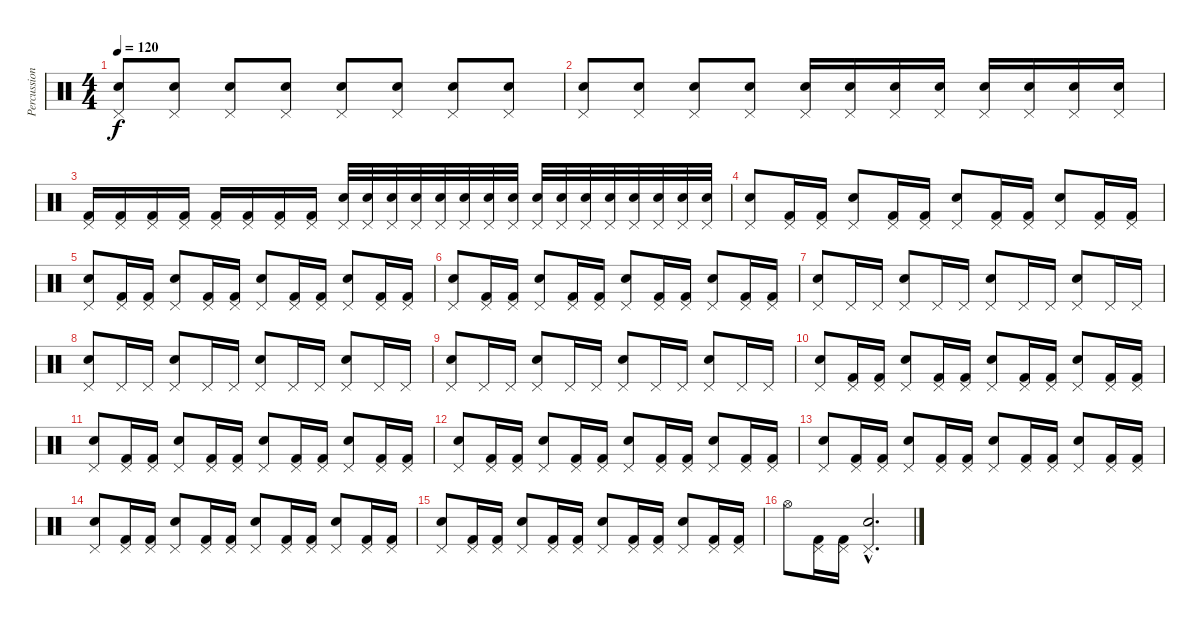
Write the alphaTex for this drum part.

\track ("Percussions" "Percussion") {instrument percussion}
\staff {score}
\articulation defaults
\ts (4 4)
\tempo 120
\clef neutral
\ks c
("Pedal Hi-Hat (hit)" "Snare (hit) 2").8{dy f} ("Pedal Hi-Hat (hit)" "Snare (hit) 2").8 ("Pedal Hi-Hat (hit)" "Snare (hit) 2").8 ("Pedal Hi-Hat (hit)" "Snare (hit) 2").8 ("Pedal Hi-Hat (hit)" "Snare (hit) 2").8 ("Pedal Hi-Hat (hit)" "Snare (hit) 2").8 ("Pedal Hi-Hat (hit)" "Snare (hit) 2").8 ("Pedal Hi-Hat (hit)" "Snare (hit) 2").8 |
("Pedal Hi-Hat (hit)" "Snare (hit) 2").8 ("Pedal Hi-Hat (hit)" "Snare (hit) 2").8 ("Pedal Hi-Hat (hit)" "Snare (hit) 2").8 ("Pedal Hi-Hat (hit)" "Snare (hit) 2").8 ("Pedal Hi-Hat (hit)" "Snare (hit) 2").16 ("Pedal Hi-Hat (hit)" "Snare (hit) 2").16 ("Pedal Hi-Hat (hit)" "Snare (hit) 2").16 ("Pedal Hi-Hat (hit)" "Snare (hit) 2").16 ("Pedal Hi-Hat (hit)" "Snare (hit) 2").16 ("Pedal Hi-Hat (hit)" "Snare (hit) 2").16 ("Pedal Hi-Hat (hit)" "Snare (hit) 2").16 ("Pedal Hi-Hat (hit)" "Snare (hit) 2").16 |
("Pedal Hi-Hat (hit)" "Kick (hit) 2").16 ("Pedal Hi-Hat (hit)" "Kick (hit) 2").16 ("Pedal Hi-Hat (hit)" "Kick (hit) 2").16 ("Pedal Hi-Hat (hit)" "Kick (hit) 2").16 ("Pedal Hi-Hat (hit)" "Kick (hit) 2").16 ("Pedal Hi-Hat (hit)" "Kick (hit) 2").16 ("Pedal Hi-Hat (hit)" "Kick (hit) 2").16 ("Pedal Hi-Hat (hit)" "Kick (hit) 2").16 ("Pedal Hi-Hat (hit)" "Snare (hit) 2").32 ("Pedal Hi-Hat (hit)" "Snare (hit) 2").32 ("Pedal Hi-Hat (hit)" "Snare (hit) 2").32 ("Pedal Hi-Hat (hit)" "Snare (hit) 2").32 ("Pedal Hi-Hat (hit)" "Snare (hit) 2").32 ("Pedal Hi-Hat (hit)" "Snare (hit) 2").32 ("Pedal Hi-Hat (hit)" "Snare (hit) 2").32 ("Pedal Hi-Hat (hit)" "Snare (hit) 2").32 ("Pedal Hi-Hat (hit)" "Snare (hit) 2").32 ("Pedal Hi-Hat (hit)" "Snare (hit) 2").32 ("Pedal Hi-Hat (hit)" "Snare (hit) 2").32 ("Pedal Hi-Hat (hit)" "Snare (hit) 2").32 ("Pedal Hi-Hat (hit)" "Snare (hit) 2").32 ("Pedal Hi-Hat (hit)" "Snare (hit) 2").32 ("Pedal Hi-Hat (hit)" "Snare (hit) 2").32 ("Pedal Hi-Hat (hit)" "Snare (hit) 2").32 |
("Pedal Hi-Hat (hit)" "Snare (hit) 2").8 ("Pedal Hi-Hat (hit)" "Kick (hit) 2").16 ("Pedal Hi-Hat (hit)" "Kick (hit) 2").16 ("Pedal Hi-Hat (hit)" "Snare (hit) 2").8 ("Pedal Hi-Hat (hit)" "Kick (hit) 2").16 ("Pedal Hi-Hat (hit)" "Kick (hit) 2").16 ("Pedal Hi-Hat (hit)" "Snare (hit) 2").8 ("Pedal Hi-Hat (hit)" "Kick (hit) 2").16 ("Pedal Hi-Hat (hit)" "Kick (hit) 2").16 ("Pedal Hi-Hat (hit)" "Snare (hit) 2").8 ("Pedal Hi-Hat (hit)" "Kick (hit) 2").16 ("Pedal Hi-Hat (hit)" "Kick (hit) 2").16 |
("Pedal Hi-Hat (hit)" "Snare (hit) 2").8 ("Pedal Hi-Hat (hit)" "Kick (hit) 2").16 ("Pedal Hi-Hat (hit)" "Kick (hit) 2").16 ("Pedal Hi-Hat (hit)" "Snare (hit) 2").8 ("Pedal Hi-Hat (hit)" "Kick (hit) 2").16 ("Pedal Hi-Hat (hit)" "Kick (hit) 2").16 ("Pedal Hi-Hat (hit)" "Snare (hit) 2").8 ("Pedal Hi-Hat (hit)" "Kick (hit) 2").16 ("Pedal Hi-Hat (hit)" "Kick (hit) 2").16 ("Pedal Hi-Hat (hit)" "Snare (hit) 2").8 ("Pedal Hi-Hat (hit)" "Kick (hit) 2").16 ("Pedal Hi-Hat (hit)" "Kick (hit) 2").16 |
("Pedal Hi-Hat (hit)" "Snare (hit) 2").8 ("Pedal Hi-Hat (hit)" "Kick (hit) 2").16 ("Pedal Hi-Hat (hit)" "Kick (hit) 2").16 ("Pedal Hi-Hat (hit)" "Snare (hit) 2").8 ("Pedal Hi-Hat (hit)" "Kick (hit) 2").16 ("Pedal Hi-Hat (hit)" "Kick (hit) 2").16 ("Pedal Hi-Hat (hit)" "Snare (hit) 2").8 ("Pedal Hi-Hat (hit)" "Kick (hit) 2").16 ("Pedal Hi-Hat (hit)" "Kick (hit) 2").16 ("Pedal Hi-Hat (hit)" "Snare (hit) 2").8 ("Pedal Hi-Hat (hit)" "Kick (hit) 2").16 ("Pedal Hi-Hat (hit)" "Kick (hit) 2").16 |
("Pedal Hi-Hat (hit)" "Snare (hit) 2").8 "Pedal Hi-Hat (hit)".16 "Pedal Hi-Hat (hit)".16 ("Pedal Hi-Hat (hit)" "Snare (hit) 2").8 "Pedal Hi-Hat (hit)".16 "Pedal Hi-Hat (hit)".16 ("Pedal Hi-Hat (hit)" "Snare (hit) 2").8 "Pedal Hi-Hat (hit)".16 "Pedal Hi-Hat (hit)".16 ("Pedal Hi-Hat (hit)" "Snare (hit) 2").8 "Pedal Hi-Hat (hit)".16 "Pedal Hi-Hat (hit)".16 |
("Pedal Hi-Hat (hit)" "Snare (hit) 2").8 "Pedal Hi-Hat (hit)".16 "Pedal Hi-Hat (hit)".16 ("Pedal Hi-Hat (hit)" "Snare (hit) 2").8 "Pedal Hi-Hat (hit)".16 "Pedal Hi-Hat (hit)".16 ("Pedal Hi-Hat (hit)" "Snare (hit) 2").8 "Pedal Hi-Hat (hit)".16 "Pedal Hi-Hat (hit)".16 ("Pedal Hi-Hat (hit)" "Snare (hit) 2").8 "Pedal Hi-Hat (hit)".16 "Pedal Hi-Hat (hit)".16 |
("Pedal Hi-Hat (hit)" "Snare (hit) 2").8 "Pedal Hi-Hat (hit)".16 "Pedal Hi-Hat (hit)".16 ("Pedal Hi-Hat (hit)" "Snare (hit) 2").8 "Pedal Hi-Hat (hit)".16 "Pedal Hi-Hat (hit)".16 ("Pedal Hi-Hat (hit)" "Snare (hit) 2").8 "Pedal Hi-Hat (hit)".16 "Pedal Hi-Hat (hit)".16 ("Pedal Hi-Hat (hit)" "Snare (hit) 2").8 "Pedal Hi-Hat (hit)".16 "Pedal Hi-Hat (hit)".16 |
("Pedal Hi-Hat (hit)" "Snare (hit) 2").8 ("Pedal Hi-Hat (hit)" "Kick (hit) 2").16 ("Pedal Hi-Hat (hit)" "Kick (hit) 2").16 ("Pedal Hi-Hat (hit)" "Snare (hit) 2").8 ("Pedal Hi-Hat (hit)" "Kick (hit) 2").16 ("Pedal Hi-Hat (hit)" "Kick (hit) 2").16 ("Pedal Hi-Hat (hit)" "Snare (hit) 2").8 ("Pedal Hi-Hat (hit)" "Kick (hit) 2").16 ("Pedal Hi-Hat (hit)" "Kick (hit) 2").16 ("Pedal Hi-Hat (hit)" "Snare (hit) 2").8 ("Pedal Hi-Hat (hit)" "Kick (hit) 2").16 ("Pedal Hi-Hat (hit)" "Kick (hit) 2").16 |
("Pedal Hi-Hat (hit)" "Snare (hit) 2").8 ("Pedal Hi-Hat (hit)" "Kick (hit) 2").16 ("Pedal Hi-Hat (hit)" "Kick (hit) 2").16 ("Pedal Hi-Hat (hit)" "Snare (hit) 2").8 ("Pedal Hi-Hat (hit)" "Kick (hit) 2").16 ("Pedal Hi-Hat (hit)" "Kick (hit) 2").16 ("Pedal Hi-Hat (hit)" "Snare (hit) 2").8 ("Pedal Hi-Hat (hit)" "Kick (hit) 2").16 ("Pedal Hi-Hat (hit)" "Kick (hit) 2").16 ("Pedal Hi-Hat (hit)" "Snare (hit) 2").8 ("Pedal Hi-Hat (hit)" "Kick (hit) 2").16 ("Pedal Hi-Hat (hit)" "Kick (hit) 2").16 |
("Pedal Hi-Hat (hit)" "Snare (hit) 2").8 ("Pedal Hi-Hat (hit)" "Kick (hit) 2").16 ("Pedal Hi-Hat (hit)" "Kick (hit) 2").16 ("Pedal Hi-Hat (hit)" "Snare (hit) 2").8 ("Pedal Hi-Hat (hit)" "Kick (hit) 2").16 ("Pedal Hi-Hat (hit)" "Kick (hit) 2").16 ("Pedal Hi-Hat (hit)" "Snare (hit) 2").8 ("Pedal Hi-Hat (hit)" "Kick (hit) 2").16 ("Pedal Hi-Hat (hit)" "Kick (hit) 2").16 ("Pedal Hi-Hat (hit)" "Snare (hit) 2").8 ("Pedal Hi-Hat (hit)" "Kick (hit) 2").16 ("Pedal Hi-Hat (hit)" "Kick (hit) 2").16 |
("Pedal Hi-Hat (hit)" "Snare (hit) 2").8 ("Pedal Hi-Hat (hit)" "Kick (hit) 2").16 ("Pedal Hi-Hat (hit)" "Kick (hit) 2").16 ("Pedal Hi-Hat (hit)" "Snare (hit) 2").8 ("Pedal Hi-Hat (hit)" "Kick (hit) 2").16 ("Pedal Hi-Hat (hit)" "Kick (hit) 2").16 ("Pedal Hi-Hat (hit)" "Snare (hit) 2").8 ("Pedal Hi-Hat (hit)" "Kick (hit) 2").16 ("Pedal Hi-Hat (hit)" "Kick (hit) 2").16 ("Pedal Hi-Hat (hit)" "Snare (hit) 2").8 ("Pedal Hi-Hat (hit)" "Kick (hit) 2").16 ("Pedal Hi-Hat (hit)" "Kick (hit) 2").16 |
("Pedal Hi-Hat (hit)" "Snare (hit) 2").8 ("Pedal Hi-Hat (hit)" "Kick (hit) 2").16 ("Pedal Hi-Hat (hit)" "Kick (hit) 2").16 ("Pedal Hi-Hat (hit)" "Snare (hit) 2").8 ("Pedal Hi-Hat (hit)" "Kick (hit) 2").16 ("Pedal Hi-Hat (hit)" "Kick (hit) 2").16 ("Pedal Hi-Hat (hit)" "Snare (hit) 2").8 ("Pedal Hi-Hat (hit)" "Kick (hit) 2").16 ("Pedal Hi-Hat (hit)" "Kick (hit) 2").16 ("Pedal Hi-Hat (hit)" "Snare (hit) 2").8 ("Pedal Hi-Hat (hit)" "Kick (hit) 2").16 ("Pedal Hi-Hat (hit)" "Kick (hit) 2").16 |
("Pedal Hi-Hat (hit)" "Snare (hit) 2").8 ("Pedal Hi-Hat (hit)" "Kick (hit) 2").16 ("Pedal Hi-Hat (hit)" "Kick (hit) 2").16 ("Pedal Hi-Hat (hit)" "Snare (hit) 2").8 ("Pedal Hi-Hat (hit)" "Kick (hit) 2").16 ("Pedal Hi-Hat (hit)" "Kick (hit) 2").16 ("Pedal Hi-Hat (hit)" "Snare (hit) 2").8 ("Pedal Hi-Hat (hit)" "Kick (hit) 2").16 ("Pedal Hi-Hat (hit)" "Kick (hit) 2").16 ("Pedal Hi-Hat (hit)" "Snare (hit) 2").8 ("Pedal Hi-Hat (hit)" "Kick (hit) 2").16 ("Pedal Hi-Hat (hit)" "Kick (hit) 2").16 |
"Hi-Hat (open)".8 ("Pedal Hi-Hat (hit)" "Kick (hit) 2").16 ("Pedal Hi-Hat (hit)" "Kick (hit) 2").16 ("Pedal Hi-Hat (hit)"{hac} "Snare (hit) 2"{hac}).2{d}
